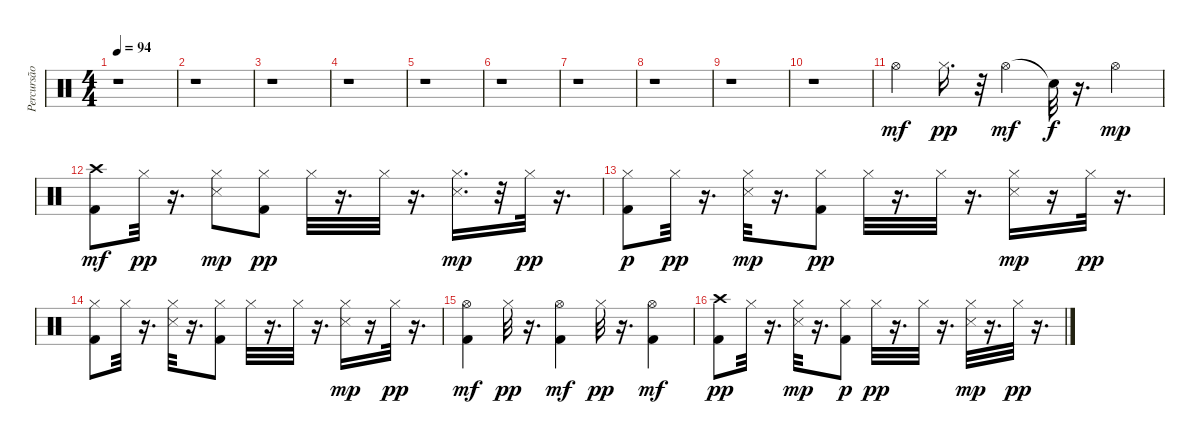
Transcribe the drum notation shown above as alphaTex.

\track ("Percursão" "Percursão") {instrument percussion}
\staff {score}
\articulation defaults
\ts (4 4)
\tempo 94
\clef neutral
\ks c
r.1{dy mf} |
r.1 |
r.1 |
r.1 |
r.1 |
r.1 |
r.1 |
r.1 |
r.1 |
r.1 |
"Hi-Hat (open)".4 "Hi-Hat (closed)".16{d dy pp} r.32 "Hi-Hat (open)".4{dy mf} "Snare (hit)"{t}.32{dy f} r.16{d} "Hi-Hat (open)".4{dy mp} |
("Kick (hit) 2" "Crash high (hit)").8{dy mf} "Hi-Hat (closed)".32{dy pp} r.16{d} ("Hi-Hat (closed)" "Snare (side stick) 3").8{dy mp} ("Kick (hit) 2" "Hi-Hat (closed)").8{dy pp} "Hi-Hat (closed)".32 r.16{d} "Hi-Hat (closed)".32 r.16{d} ("Hi-Hat (closed)" "Snare (side stick) 3").16{d dy mp} r.32 "Hi-Hat (closed)".32{dy pp} r.16{d} |
("Kick (hit) 2" "Hi-Hat (closed)").8{dy p} "Hi-Hat (closed)".32{dy pp} r.16{d} ("Hi-Hat (closed)" "Snare (side stick) 3").32{dy mp} r.16{d} ("Kick (hit) 2" "Hi-Hat (closed)").8{dy pp} "Hi-Hat (closed)".32 r.16{d} "Hi-Hat (closed)".32 r.16{d} ("Hi-Hat (closed)" "Snare (side stick) 3").16{dy mp} r.16 "Hi-Hat (closed)".32{dy pp} r.16{d} |
("Hi-Hat (closed)" "Kick (hit) 2").8 "Hi-Hat (closed)".32 r.16{d} ("Snare (side stick) 3" "Hi-Hat (closed)").32 r.16{d} ("Hi-Hat (closed)" "Kick (hit) 2").8 "Hi-Hat (closed)".32 r.16{d} "Hi-Hat (closed)".32 r.16{d} ("Hi-Hat (closed)" "Snare (side stick) 3").16{dy mp} r.16 "Hi-Hat (closed)".32{dy pp} r.16{d} |
("Kick (hit) 2" "Hi-Hat (open)").4{dy mf} "Hi-Hat (closed)".32{dy pp} r.16{d} ("Kick (hit) 2" "Hi-Hat (open)").4{dy mf} "Hi-Hat (closed)".32{dy pp} r.16{d} ("Kick (hit) 2" "Hi-Hat (open)").4{dy mf} |
("Crash high (hit)" "Kick (hit) 2").8{dy pp} "Hi-Hat (closed)".32 r.16{d} ("Hi-Hat (closed)" "Snare (side stick) 3").32{dy mp} r.16{d} ("Kick (hit) 2" "Hi-Hat (closed)").8{dy p} "Hi-Hat (closed)".32{dy pp} r.16{d} "Hi-Hat (closed)".32 r.16{d} ("Hi-Hat (closed)" "Snare (side stick) 3").32{dy mp} r.16{d} "Hi-Hat (closed)".32{dy pp} r.16{d}
